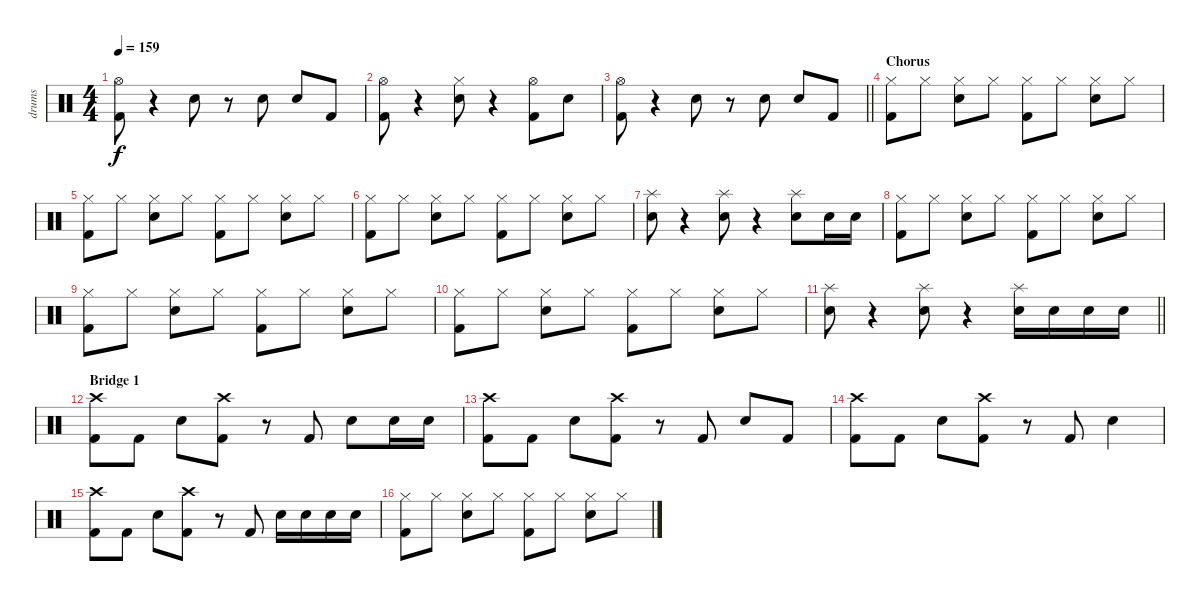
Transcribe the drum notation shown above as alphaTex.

\track ("drums" "drums") {instrument percussion}
\staff {score}
\articulation defaults
\ts (4 4)
\tempo 159
\clef neutral
\ks c
("Hi-Hat (open)" "Kick (hit) 2").8{dy f} r.4 "Electric Snare (hit)".8 r.8 "Electric Snare (hit)".8 "Electric Snare (hit)".8 "Kick (hit) 2".8 |
("Hi-Hat (open)" "Kick (hit) 2").8 r.4 ("Hi-Hat (closed)" "Electric Snare (hit)").8 r.4 ("Hi-Hat (open)" "Kick (hit) 2").8 "Electric Snare (hit)".8 |
\barLineRight lightlight
("Hi-Hat (open)" "Kick (hit) 2").8 r.4 "Electric Snare (hit)".8 r.8 "Electric Snare (hit)".8 "Electric Snare (hit)".8 "Kick (hit) 2".8 |
\section ("" "Chorus")
("Hi-Hat (closed)" "Kick (hit) 2").8 "Hi-Hat (closed)".8 ("Hi-Hat (closed)" "Electric Snare (hit)").8 "Hi-Hat (closed)".8 ("Hi-Hat (closed)" "Kick (hit) 2").8 "Hi-Hat (closed)".8 ("Hi-Hat (closed)" "Electric Snare (hit)").8 "Hi-Hat (closed)".8 |
("Hi-Hat (closed)" "Kick (hit) 2").8 "Hi-Hat (closed)".8 ("Hi-Hat (closed)" "Electric Snare (hit)").8 "Hi-Hat (closed)".8 ("Hi-Hat (closed)" "Kick (hit) 2").8 "Hi-Hat (closed)".8 ("Hi-Hat (closed)" "Electric Snare (hit)").8 "Hi-Hat (closed)".8 |
("Hi-Hat (closed)" "Kick (hit) 2").8 "Hi-Hat (closed)".8 ("Hi-Hat (closed)" "Electric Snare (hit)").8 "Hi-Hat (closed)".8 ("Hi-Hat (closed)" "Kick (hit) 2").8 "Hi-Hat (closed)".8 ("Hi-Hat (closed)" "Electric Snare (hit)").8 "Hi-Hat (closed)".8 |
("Splash (hit)" "Electric Snare (hit)").8 r.4 ("Splash (hit)" "Electric Snare (hit)").8 r.4 ("Splash (hit)" "Electric Snare (hit)").8 "Electric Snare (hit)".16 "Electric Snare (hit)".16 |
("Hi-Hat (closed)" "Kick (hit) 2").8 "Hi-Hat (closed)".8 ("Hi-Hat (closed)" "Electric Snare (hit)").8 "Hi-Hat (closed)".8 ("Hi-Hat (closed)" "Kick (hit) 2").8 "Hi-Hat (closed)".8 ("Hi-Hat (closed)" "Electric Snare (hit)").8 "Hi-Hat (closed)".8 |
("Hi-Hat (closed)" "Kick (hit) 2").8 "Hi-Hat (closed)".8 ("Hi-Hat (closed)" "Electric Snare (hit)").8 "Hi-Hat (closed)".8 ("Hi-Hat (closed)" "Kick (hit) 2").8 "Hi-Hat (closed)".8 ("Hi-Hat (closed)" "Electric Snare (hit)").8 "Hi-Hat (closed)".8 |
("Hi-Hat (closed)" "Kick (hit) 2").8 "Hi-Hat (closed)".8 ("Hi-Hat (closed)" "Electric Snare (hit)").8 "Hi-Hat (closed)".8 ("Hi-Hat (closed)" "Kick (hit) 2").8 "Hi-Hat (closed)".8 ("Hi-Hat (closed)" "Electric Snare (hit)").8 "Hi-Hat (closed)".8 |
\barLineRight lightlight
("Splash (hit)" "Electric Snare (hit)").8 r.4 ("Splash (hit)" "Electric Snare (hit)").8 r.4 ("Splash (hit)" "Electric Snare (hit)").16 "Electric Snare (hit)".16 "Electric Snare (hit)".16 "Electric Snare (hit)".16 |
\section ("" "Bridge 1")
("Crash high (hit)" "Kick (hit) 2").8 "Kick (hit) 2".8 "Electric Snare (hit)".8 ("Crash high (hit)" "Kick (hit) 2").8 r.8 "Kick (hit) 2".8 "Electric Snare (hit)".8 "Electric Snare (hit)".16 "Electric Snare (hit)".16 |
("Crash high (hit)" "Kick (hit) 2").8 "Kick (hit) 2".8 "Electric Snare (hit)".8 ("Crash high (hit)" "Kick (hit) 2").8 r.8 "Kick (hit) 2".8 "Electric Snare (hit)".8 "Kick (hit) 2".8 |
("Crash high (hit)" "Kick (hit) 2").8 "Kick (hit) 2".8 "Electric Snare (hit)".8 ("Crash high (hit)" "Kick (hit) 2").8 r.8 "Kick (hit) 2".8 "Electric Snare (hit)".4 |
("Crash high (hit)" "Kick (hit) 2").8 "Kick (hit) 2".8 "Electric Snare (hit)".8 ("Crash high (hit)" "Kick (hit) 2").8 r.8 "Kick (hit) 2".8 "Electric Snare (hit)".16 "Electric Snare (hit)".16 "Electric Snare (hit)".16 "Electric Snare (hit)".16 |
("Hi-Hat (closed)" "Kick (hit) 2").8 "Hi-Hat (closed)".8 ("Hi-Hat (closed)" "Electric Snare (hit)").8 "Hi-Hat (closed)".8 ("Hi-Hat (closed)" "Kick (hit) 2").8 "Hi-Hat (closed)".8 ("Hi-Hat (closed)" "Electric Snare (hit)").8 "Hi-Hat (closed)".8
